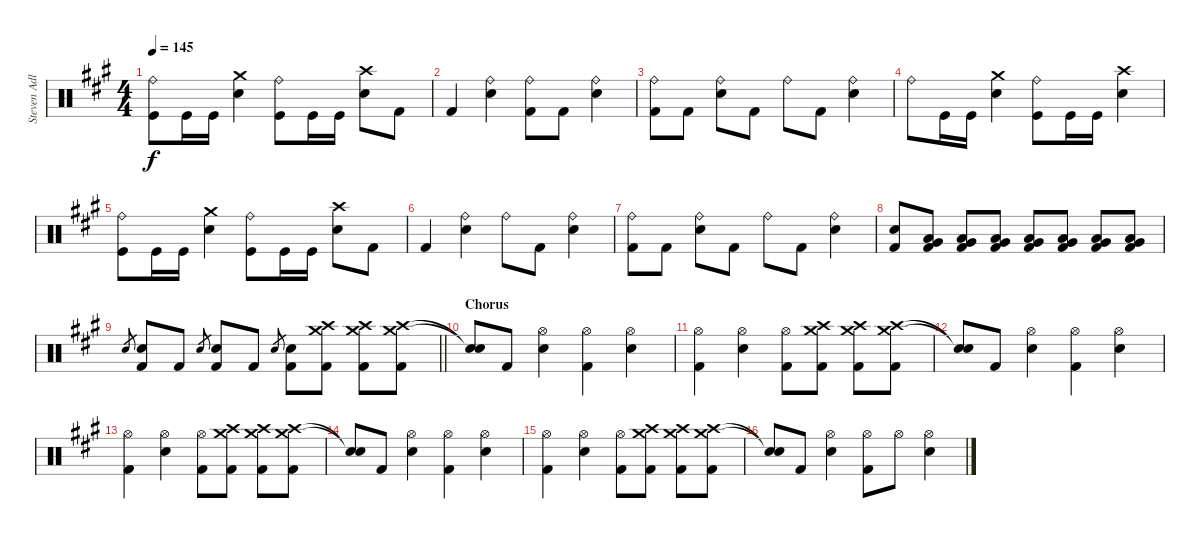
\track ("Steven Adler - Drums" "Steven Adl") {instrument percussion}
\staff {score}
\articulation defaults
\ts (4 4)
\tempo 145
\clef neutral
\ks a
("Ride (bell)" "Kick (hit)").8{dy f} "Kick (hit)".16 "Kick (hit)".16 ("Crash medium (hit)" "Snare (hit) 2").4 ("Ride (bell)" "Kick (hit)").8 "Kick (hit)".16 "Kick (hit)".16 ("Crash high (hit)" "Snare (hit) 2").8 "Kick (hit) 2".8 |
"Kick (hit) 2".4 ("Ride (bell)" "Snare (hit) 2").4 ("Ride (bell)" "Kick (hit) 2").8 "Kick (hit) 2".8 ("Ride (bell)" "Snare (hit) 2").4 |
("Ride (bell)" "Kick (hit) 2").8 "Kick (hit) 2".8 ("Ride (bell)" "Snare (hit) 2").8 "Kick (hit) 2".8 "Ride (bell)".8 "Kick (hit) 2".8 ("Ride (bell)" "Snare (hit) 2").4 |
"Ride (bell)".8 "Kick (hit)".16 "Kick (hit)".16 ("Crash medium (hit)" "Snare (hit) 2").4 ("Ride (bell)" "Kick (hit)").8 "Kick (hit)".16 "Kick (hit)".16 ("Crash high (hit)" "Snare (hit) 2").4 |
("Ride (bell)" "Kick (hit)").8 "Kick (hit)".16 "Kick (hit)".16 ("Crash medium (hit)" "Snare (hit) 2").4 ("Ride (bell)" "Kick (hit)").8 "Kick (hit)".16 "Kick (hit)".16 ("Crash high (hit)" "Snare (hit) 2").8 "Kick (hit) 2".8 |
"Kick (hit) 2".4 ("Ride (bell)" "Snare (hit) 2").4 "Ride (bell)".8 "Kick (hit) 2".8 ("Ride (bell)" "Snare (hit) 2").4 |
("Ride (bell)" "Kick (hit) 2").8 "Kick (hit) 2".8 ("Ride (bell)" "Snare (hit) 2").8 "Kick (hit) 2".8 "Ride (bell)".8 "Kick (hit) 2".8 ("Ride (bell)" "Snare (hit) 2").4 |
("Snare (hit) 2" "Kick (hit) 2").8 ("Very Low Tom (hit)" "Low Tom (hit)" "Kick (hit) 2").8 ("Very Low Tom (hit)" "Low Tom (hit)" "Kick (hit) 2").8 ("Very Low Tom (hit)" "Low Tom (hit)" "Kick (hit) 2").8 ("Very Low Tom (hit)" "Low Tom (hit)" "Kick (hit) 2").8 ("Very Low Tom (hit)" "Low Tom (hit)" "Kick (hit) 2").8 ("Very Low Tom (hit)" "Low Tom (hit)" "Kick (hit) 2").8 ("Very Low Tom (hit)" "Low Tom (hit)" "Kick (hit) 2").8 |
\barLineRight lightlight "Snare (hit) 2".8{gr}
("Snare (hit) 2" "Kick (hit) 2").8 "Kick (hit) 2".8 "Snare (hit) 2".8{gr} ("Snare (hit) 2" "Kick (hit) 2").8 "Kick (hit) 2".8 "Snare (hit) 2".8{gr} ("Snare (hit) 2" "Kick (hit) 2").8 ("Crash medium (hit)" "Crash high (hit)" "Kick (hit) 2").8 ("Crash medium (hit)" "Crash high (hit)" "Kick (hit) 2").8 ("Crash medium (hit)" "Crash high (hit)" "Kick (hit) 2").8 |
\section ("" "Chorus")
("Snare (hit)"{t} "Snare (hit)"{t}).8 "Kick (hit) 2".8 ("Hi-Hat (open)" "Snare (hit) 2").4 ("Hi-Hat (open)" "Kick (hit) 2").4 ("Hi-Hat (open)" "Snare (hit) 2").4 |
("Hi-Hat (open)" "Kick (hit) 2").4 ("Hi-Hat (open)" "Snare (hit) 2").4 ("Hi-Hat (open)" "Kick (hit) 2").8 ("Crash medium (hit)" "Crash high (hit)" "Kick (hit) 2").8 ("Crash medium (hit)" "Crash high (hit)" "Kick (hit) 2").8 ("Crash medium (hit)" "Crash high (hit)" "Kick (hit) 2").8 |
("Snare (hit)"{t} "Snare (hit)"{t}).8 "Kick (hit) 2".8 ("Hi-Hat (open)" "Snare (hit) 2").4 ("Hi-Hat (open)" "Kick (hit) 2").4 ("Hi-Hat (open)" "Snare (hit) 2").4 |
("Hi-Hat (open)" "Kick (hit) 2").4 ("Hi-Hat (open)" "Snare (hit) 2").4 ("Hi-Hat (open)" "Kick (hit) 2").8 ("Crash medium (hit)" "Crash high (hit)" "Kick (hit) 2").8 ("Crash medium (hit)" "Crash high (hit)" "Kick (hit) 2").8 ("Crash medium (hit)" "Crash high (hit)" "Kick (hit) 2").8 |
("Snare (hit)"{t} "Snare (hit)"{t}).8 "Kick (hit) 2".8 ("Hi-Hat (open)" "Snare (hit) 2").4 ("Hi-Hat (open)" "Kick (hit) 2").4 ("Hi-Hat (open)" "Snare (hit) 2").4 |
("Hi-Hat (open)" "Kick (hit) 2").4 ("Hi-Hat (open)" "Snare (hit) 2").4 ("Hi-Hat (open)" "Kick (hit) 2").8 ("Crash medium (hit)" "Crash high (hit)" "Kick (hit) 2").8 ("Crash medium (hit)" "Crash high (hit)" "Kick (hit) 2").8 ("Crash medium (hit)" "Crash high (hit)" "Kick (hit) 2").8 |
("Snare (hit)"{t} "Snare (hit)"{t}).8 "Kick (hit) 2".8 ("Hi-Hat (open)" "Snare (hit) 2").4 ("Hi-Hat (open)" "Kick (hit) 2").8 "Hi-Hat (open)".8 ("Hi-Hat (open)" "Snare (hit) 2").4
